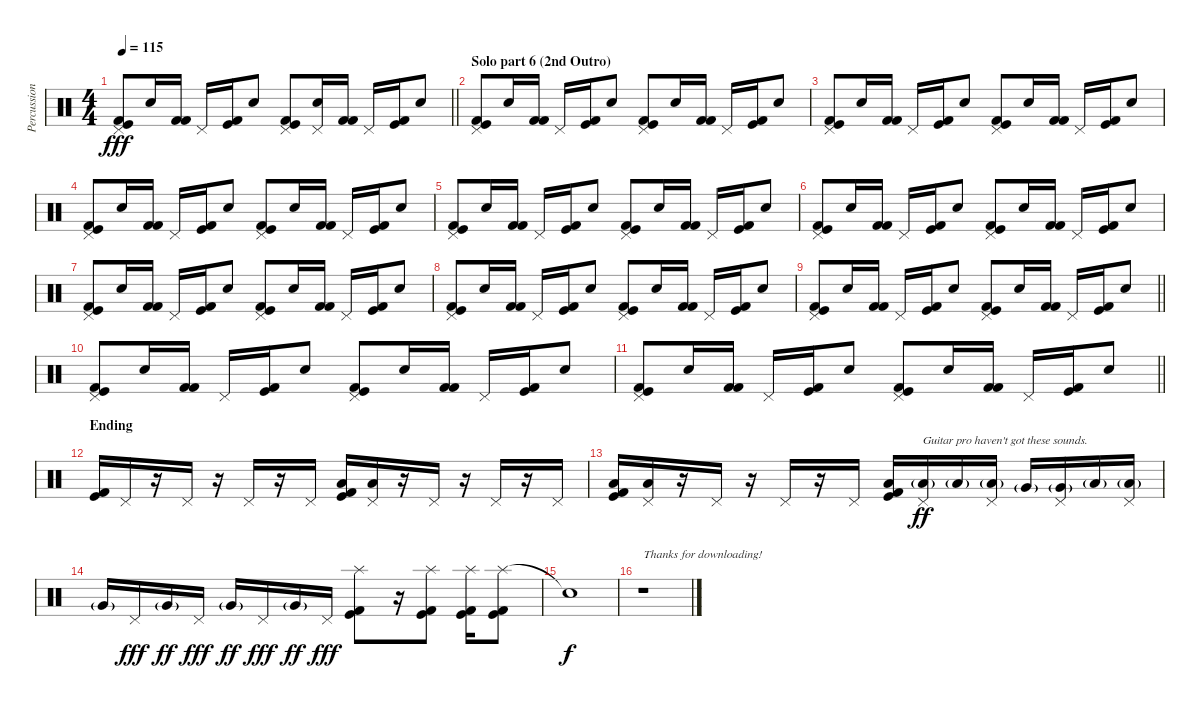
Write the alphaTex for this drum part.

\track ("Percussion" "Percussion") {instrument percussion}
\staff {score}
\articulation defaults
\ts (4 4)
\tempo 115
\clef neutral
\barLineRight lightlight
\ks c
("Pedal Hi-Hat (hit)" "Kick (hit) 2" "Kick (hit)").8{dy fff} "Snare (hit) 2".16 ("Kick (hit) 2" "Kick (hit) 2").16 "Pedal Hi-Hat (hit)".16 ("Kick (hit)" "Kick (hit) 2").16 "Snare (hit) 2".8 ("Pedal Hi-Hat (hit)" "Kick (hit) 2" "Kick (hit)").8 ("Pedal Hi-Hat (hit)" "Snare (hit) 2").16 ("Kick (hit) 2" "Kick (hit) 2").16 "Pedal Hi-Hat (hit)".16 ("Kick (hit)" "Kick (hit) 2").16 "Snare (hit) 2".8 |
\section ("" "Solo part 6 (2nd Outro)")
("Pedal Hi-Hat (hit)" "Kick (hit) 2" "Kick (hit)").8 "Snare (hit) 2".16 ("Kick (hit) 2" "Kick (hit) 2").16 "Pedal Hi-Hat (hit)".16 ("Kick (hit)" "Kick (hit) 2").16 "Snare (hit) 2".8 ("Pedal Hi-Hat (hit)" "Kick (hit) 2" "Kick (hit)").8 "Snare (hit) 2".16 ("Kick (hit) 2" "Kick (hit) 2").16 "Pedal Hi-Hat (hit)".16 ("Kick (hit)" "Kick (hit) 2").16 "Snare (hit) 2".8 |
("Pedal Hi-Hat (hit)" "Kick (hit) 2" "Kick (hit)").8 "Snare (hit) 2".16 ("Kick (hit) 2" "Kick (hit) 2").16 "Pedal Hi-Hat (hit)".16 ("Kick (hit)" "Kick (hit) 2").16 "Snare (hit) 2".8 ("Pedal Hi-Hat (hit)" "Kick (hit) 2" "Kick (hit)").8 "Snare (hit) 2".16 ("Kick (hit) 2" "Kick (hit) 2").16 "Pedal Hi-Hat (hit)".16 ("Kick (hit)" "Kick (hit) 2").16 "Snare (hit) 2".8 |
("Pedal Hi-Hat (hit)" "Kick (hit) 2" "Kick (hit)").8 "Snare (hit) 2".16 ("Kick (hit) 2" "Kick (hit) 2").16 "Pedal Hi-Hat (hit)".16 ("Kick (hit)" "Kick (hit) 2").16 "Snare (hit) 2".8 ("Pedal Hi-Hat (hit)" "Kick (hit) 2" "Kick (hit)").8 "Snare (hit) 2".16 ("Kick (hit) 2" "Kick (hit) 2").16 "Pedal Hi-Hat (hit)".16 ("Kick (hit)" "Kick (hit) 2").16 "Snare (hit) 2".8 |
("Pedal Hi-Hat (hit)" "Kick (hit) 2" "Kick (hit)").8 "Snare (hit) 2".16 ("Kick (hit) 2" "Kick (hit) 2").16 "Pedal Hi-Hat (hit)".16 ("Kick (hit)" "Kick (hit) 2").16 "Snare (hit) 2".8 ("Pedal Hi-Hat (hit)" "Kick (hit) 2" "Kick (hit)").8 "Snare (hit) 2".16 ("Kick (hit) 2" "Kick (hit) 2").16 "Pedal Hi-Hat (hit)".16 ("Kick (hit)" "Kick (hit) 2").16 "Snare (hit) 2".8 |
("Pedal Hi-Hat (hit)" "Kick (hit) 2" "Kick (hit)").8 "Snare (hit) 2".16 ("Kick (hit) 2" "Kick (hit) 2").16 "Pedal Hi-Hat (hit)".16 ("Kick (hit)" "Kick (hit) 2").16 "Snare (hit) 2".8 ("Pedal Hi-Hat (hit)" "Kick (hit) 2" "Kick (hit)").8 "Snare (hit) 2".16 ("Kick (hit) 2" "Kick (hit) 2").16 "Pedal Hi-Hat (hit)".16 ("Kick (hit)" "Kick (hit) 2").16 "Snare (hit) 2".8 |
("Pedal Hi-Hat (hit)" "Kick (hit) 2" "Kick (hit)").8 "Snare (hit) 2".16 ("Kick (hit) 2" "Kick (hit) 2").16 "Pedal Hi-Hat (hit)".16 ("Kick (hit)" "Kick (hit) 2").16 "Snare (hit) 2".8 ("Pedal Hi-Hat (hit)" "Kick (hit) 2" "Kick (hit)").8 "Snare (hit) 2".16 ("Kick (hit) 2" "Kick (hit) 2").16 "Pedal Hi-Hat (hit)".16 ("Kick (hit)" "Kick (hit) 2").16 "Snare (hit) 2".8 |
("Pedal Hi-Hat (hit)" "Kick (hit) 2" "Kick (hit)").8 "Snare (hit) 2".16 ("Kick (hit) 2" "Kick (hit) 2").16 "Pedal Hi-Hat (hit)".16 ("Kick (hit)" "Kick (hit) 2").16 "Snare (hit) 2".8 ("Pedal Hi-Hat (hit)" "Kick (hit) 2" "Kick (hit)").8 "Snare (hit) 2".16 ("Kick (hit) 2" "Kick (hit) 2").16 "Pedal Hi-Hat (hit)".16 ("Kick (hit)" "Kick (hit) 2").16 "Snare (hit) 2".8 |
\barLineRight lightlight
("Pedal Hi-Hat (hit)" "Kick (hit) 2" "Kick (hit)").8 "Snare (hit) 2".16 ("Kick (hit) 2" "Kick (hit) 2").16 "Pedal Hi-Hat (hit)".16 ("Kick (hit)" "Kick (hit) 2").16 "Snare (hit) 2".8 ("Pedal Hi-Hat (hit)" "Kick (hit) 2" "Kick (hit)").8 "Snare (hit) 2".16 ("Kick (hit) 2" "Kick (hit) 2").16 "Pedal Hi-Hat (hit)".16 ("Kick (hit)" "Kick (hit) 2").16 "Snare (hit) 2".8 |
("Pedal Hi-Hat (hit)" "Kick (hit) 2" "Kick (hit)").8 "Snare (hit) 2".16 ("Kick (hit) 2" "Kick (hit) 2").16 "Pedal Hi-Hat (hit)".16 ("Kick (hit)" "Kick (hit) 2").16 "Snare (hit) 2".8 ("Pedal Hi-Hat (hit)" "Kick (hit) 2" "Kick (hit)").8 "Snare (hit) 2".16 ("Kick (hit) 2" "Kick (hit) 2").16 "Pedal Hi-Hat (hit)".16 ("Kick (hit)" "Kick (hit) 2").16 "Snare (hit) 2".8 |
\barLineRight lightlight
("Pedal Hi-Hat (hit)" "Kick (hit) 2" "Kick (hit)").8 "Snare (hit) 2".16 ("Kick (hit) 2" "Kick (hit) 2").16 "Pedal Hi-Hat (hit)".16 ("Kick (hit)" "Kick (hit) 2").16 "Snare (hit) 2".8 ("Pedal Hi-Hat (hit)" "Kick (hit) 2" "Kick (hit)").8 "Snare (hit) 2".16 ("Kick (hit) 2" "Kick (hit) 2").16 "Pedal Hi-Hat (hit)".16 ("Kick (hit)" "Kick (hit) 2").16 "Snare (hit) 2".8 |
\section ("" "Ending")
("Kick (hit)" "Kick (hit) 2").16 "Pedal Hi-Hat (hit)".16 r.16 "Pedal Hi-Hat (hit)".16 r.16 "Pedal Hi-Hat (hit)".16 r.16 "Pedal Hi-Hat (hit)".16 ("Low Tom (hit)" "Kick (hit)" "Kick (hit) 2").16 ("Pedal Hi-Hat (hit)" "Low Tom (hit)").16 r.16 "Pedal Hi-Hat (hit)".16 r.16 "Pedal Hi-Hat (hit)".16 r.16 "Pedal Hi-Hat (hit)".16 |
("Low Tom (hit)" "Kick (hit)" "Kick (hit) 2").16 ("Pedal Hi-Hat (hit)" "Low Tom (hit)").16 r.16 "Pedal Hi-Hat (hit)".16 r.16 "Pedal Hi-Hat (hit)".16 r.16 "Pedal Hi-Hat (hit)".16 ("Low Tom (hit)" "Kick (hit)" "Kick (hit) 2").16 ("Pedal Hi-Hat (hit)" "Low Tom (hit)"{g}).16{txt "Guitar pro haven't got these sounds." dy ff} "Low Tom (hit)"{g}.16 ("Pedal Hi-Hat (hit)" "Low Tom (hit)"{g}).16 "Very Low Tom (hit)"{g}.16 ("Pedal Hi-Hat (hit)" "Very Low Tom (hit)"{g}).16 "Low Floor Tom (hit)"{g}.16 ("Pedal Hi-Hat (hit)" "Low Floor Tom (hit)"{g}).16 |
"Very Low Tom (hit)"{g}.16 "Pedal Hi-Hat (hit)".16{dy fff} "Very Low Tom (hit)"{g}.16{dy ff} "Pedal Hi-Hat (hit)".16{dy fff} "Very Low Tom (hit)"{g}.16{dy ff} "Pedal Hi-Hat (hit)".16{dy fff} "Very Low Tom (hit)"{g}.16{dy ff} "Pedal Hi-Hat (hit)".16{dy fff} ("Splash (hit)" "Kick (hit)" "Kick (hit) 2").8 r.16 ("Splash (hit)" "Kick (hit)" "Kick (hit) 2").8 ("Splash (hit)" "Kick (hit)" "Kick (hit) 2").16 ("Splash (hit)" "Kick (hit)" "Kick (hit) 2").8 |
"Snare (hit)"{t}.1{dy f} |
r.1{txt "Thanks for downloading!"}
